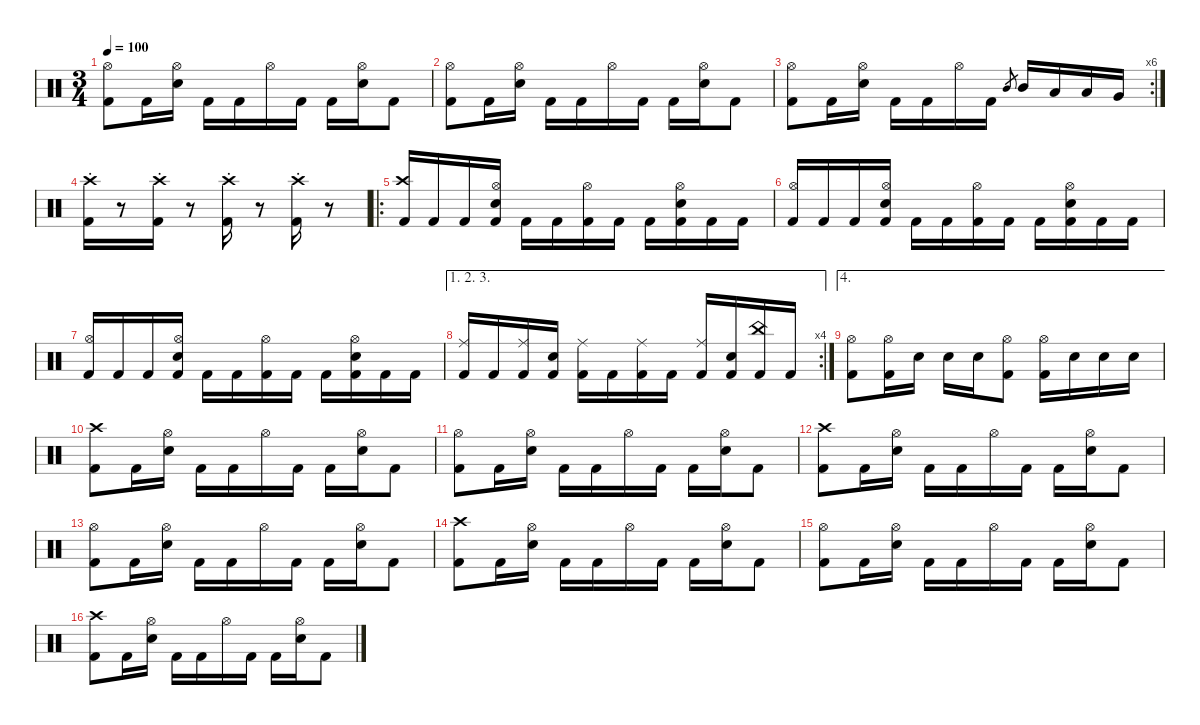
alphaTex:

\defaultSystemsLayout 4
\hideDynamics
\bracketExtendMode nobrackets
\singleTrackTrackNamePolicy hidden
\multiTrackTrackNamePolicy hidden
\firstSystemTrackNameMode fullname
\firstSystemTrackNameOrientation horizontal
\otherSystemsTrackNameOrientation horizontal
\track ("Drums" "drm.") {instrument percussion}
\staff {score}
\articulation defaults
\ts (3 4)
\tempo 100
\clef neutral
\ks c
("Hi-Hat (open)" "Kick (hit) 2").8{dy f beam Down} "Kick (hit) 2".16{dy ff beam Down} ("Hi-Hat (open)" "Snare (hit) 2").16{dy f beam Down} "Kick (hit) 2".16{dy ff beam Down} "Kick (hit) 2".16{beam Down} "Hi-Hat (open)".16{dy f beam Down} "Kick (hit) 2".16{dy ff beam Down} "Kick (hit) 2".16{beam Down} ("Hi-Hat (open)" "Snare (hit) 2").16{dy f beam Down} "Kick (hit) 2".8{dy ff beam Down} |
("Hi-Hat (open)" "Kick (hit) 2").8{dy f beam Down} "Kick (hit) 2".16{dy ff beam Down} ("Hi-Hat (open)" "Snare (hit) 2").16{dy f beam Down} "Kick (hit) 2".16{dy ff beam Down} "Kick (hit) 2".16{beam Down} "Hi-Hat (open)".16{dy f beam Down} "Kick (hit) 2".16{dy ff beam Down} "Kick (hit) 2".16{beam Down} ("Hi-Hat (open)" "Snare (hit) 2").16{dy f beam Down} "Kick (hit) 2".8{dy ff beam Down} |
\rc 6
("Hi-Hat (open)" "Kick (hit) 2").8{dy f beam Down} "Kick (hit) 2".16{dy ff beam Down} ("Hi-Hat (open)" "Snare (hit) 2").16{dy f beam Down} "Kick (hit) 2".16{dy ff beam Down} "Kick (hit) 2".16{beam Down} "Hi-Hat (open)".16{dy f beam Down} "Kick (hit) 2".16{dy ff beam Down} "Mid Tom (hit)".8{gr dy mf beam Up} "Mid Tom (hit)".16{dy ff beam Up} "Low Tom (hit)".16{beam Up} "Low Tom (hit)".16{dy f beam Up} "Very Low Tom (hit)".16{dy ff beam Up} |
("Crash high (hit)"{st} "Kick (hit) 2").16{dy f beam Down} r.8{beam Down} ("Crash high (hit)"{st} "Kick (hit) 2").16{beam Down} r.8{beam Down} ("Crash high (hit)"{st} "Kick (hit) 2").16{beam Down} r.8{beam Down} ("Crash high (hit)"{st} "Kick (hit) 2").16{beam Down} r.8{beam Down} |
\ro
("Crash high (hit)" "Kick (hit) 2").16{beam Up} "Kick (hit) 2".16{beam Up} "Kick (hit) 2".16{beam Up} ("Hi-Hat (open)" "Snare (hit) 2" "Kick (hit) 2").16{beam Up} "Kick (hit) 2".16{beam Down} "Kick (hit) 2".16{beam Down} ("Hi-Hat (open)" "Kick (hit) 2").16{beam Down} "Kick (hit) 2".16{beam Down} "Kick (hit) 2".16{beam Down} ("Hi-Hat (open)" "Snare (hit) 2" "Kick (hit) 2").16{beam Down} "Kick (hit) 2".16{beam Down} "Kick (hit) 2".16{beam Down} |
("Hi-Hat (open)" "Kick (hit) 2").16{beam Up} "Kick (hit) 2".16{beam Up} "Kick (hit) 2".16{beam Up} ("Hi-Hat (open)" "Snare (hit) 2" "Kick (hit) 2").16{beam Up} "Kick (hit) 2".16{beam Down} "Kick (hit) 2".16{beam Down} ("Hi-Hat (open)" "Kick (hit) 2").16{beam Down} "Kick (hit) 2".16{beam Down} "Kick (hit) 2".16{beam Down} ("Hi-Hat (open)" "Snare (hit) 2" "Kick (hit) 2").16{beam Down} "Kick (hit) 2".16{beam Down} "Kick (hit) 2".16{beam Down} |
("Hi-Hat (open)" "Kick (hit) 2").16{beam Up} "Kick (hit) 2".16{beam Up} "Kick (hit) 2".16{beam Up} ("Hi-Hat (open)" "Snare (hit) 2" "Kick (hit) 2").16{beam Up} "Kick (hit) 2".16{beam Down} "Kick (hit) 2".16{beam Down} ("Hi-Hat (open)" "Kick (hit) 2").16{beam Down} "Kick (hit) 2".16{beam Down} "Kick (hit) 2".16{beam Down} ("Hi-Hat (open)" "Snare (hit) 2" "Kick (hit) 2").16{beam Down} "Kick (hit) 2".16{beam Down} "Kick (hit) 2".16{beam Down} |
\ae (1 2 3)
\rc 4
("Ride (middle)" "Kick (hit) 2").16{beam Up} "Kick (hit) 2".16{beam Up} ("Ride (middle)" "Kick (hit) 2").16{beam Up} ("Snare (hit) 2" "Kick (hit) 2").16{beam Up} ("Ride (middle)" "Kick (hit) 2").16{beam Down} "Kick (hit) 2".16{beam Down} ("Ride (middle)" "Kick (hit) 2").16{beam Down} "Kick (hit) 2".16{beam Down} ("Ride (middle)" "Kick (hit) 2").16{beam Up} ("Snare (hit) 2" "Kick (hit) 2").16{beam Up} ("China (hit)" "Kick (hit) 2").16{beam Up} "Kick (hit) 2".16{beam Up} |
\ae 4
("Hi-Hat (open)" "Kick (hit) 2").8{beam Down} ("Hi-Hat (open)" "Kick (hit) 2").16{beam Down} "Snare (hit) 2".16{beam Down} "Snare (hit) 2".16{beam Down} "Snare (hit) 2".16{beam Down} ("Hi-Hat (open)" "Kick (hit) 2").8{beam Down} ("Hi-Hat (open)" "Kick (hit) 2").16{beam Down} "Snare (hit) 2".16{beam Down} "Snare (hit) 2".16{beam Down} "Snare (hit) 2".16{beam Down} |
("Crash high (hit)" "Kick (hit) 2").8{beam Down} "Kick (hit) 2".16{dy ff beam Down} ("Hi-Hat (open)" "Snare (hit) 2").16{dy f beam Down} "Kick (hit) 2".16{dy ff beam Down} "Kick (hit) 2".16{beam Down} "Hi-Hat (open)".16{dy f beam Down} "Kick (hit) 2".16{dy ff beam Down} "Kick (hit) 2".16{beam Down} ("Hi-Hat (open)" "Snare (hit) 2").16{dy f beam Down} "Kick (hit) 2".8{dy ff beam Down} |
("Hi-Hat (open)" "Kick (hit) 2").8{dy f beam Down} "Kick (hit) 2".16{dy ff beam Down} ("Hi-Hat (open)" "Snare (hit) 2").16{dy f beam Down} "Kick (hit) 2".16{dy ff beam Down} "Kick (hit) 2".16{beam Down} "Hi-Hat (open)".16{dy f beam Down} "Kick (hit) 2".16{dy ff beam Down} "Kick (hit) 2".16{beam Down} ("Hi-Hat (open)" "Snare (hit) 2").16{dy f beam Down} "Kick (hit) 2".8{dy ff beam Down} |
("Crash high (hit)" "Kick (hit) 2").8{dy f beam Down} "Kick (hit) 2".16{dy ff beam Down} ("Hi-Hat (open)" "Snare (hit) 2").16{dy f beam Down} "Kick (hit) 2".16{dy ff beam Down} "Kick (hit) 2".16{beam Down} "Hi-Hat (open)".16{dy f beam Down} "Kick (hit) 2".16{dy ff beam Down} "Kick (hit) 2".16{beam Down} ("Hi-Hat (open)" "Snare (hit) 2").16{dy f beam Down} "Kick (hit) 2".8{dy ff beam Down} |
("Hi-Hat (open)" "Kick (hit) 2").8{dy f beam Down} "Kick (hit) 2".16{dy ff beam Down} ("Hi-Hat (open)" "Snare (hit) 2").16{dy f beam Down} "Kick (hit) 2".16{dy ff beam Down} "Kick (hit) 2".16{beam Down} "Hi-Hat (open)".16{dy f beam Down} "Kick (hit) 2".16{dy ff beam Down} "Kick (hit) 2".16{beam Down} ("Hi-Hat (open)" "Snare (hit) 2").16{dy f beam Down} "Kick (hit) 2".8{dy ff beam Down} |
("Crash high (hit)" "Kick (hit) 2").8{dy f beam Down} "Kick (hit) 2".16{dy ff beam Down} ("Hi-Hat (open)" "Snare (hit) 2").16{dy f beam Down} "Kick (hit) 2".16{dy ff beam Down} "Kick (hit) 2".16{beam Down} "Hi-Hat (open)".16{dy f beam Down} "Kick (hit) 2".16{dy ff beam Down} "Kick (hit) 2".16{beam Down} ("Hi-Hat (open)" "Snare (hit) 2").16{dy f beam Down} "Kick (hit) 2".8{dy ff beam Down} |
("Hi-Hat (open)" "Kick (hit) 2").8{dy f beam Down} "Kick (hit) 2".16{dy ff beam Down} ("Hi-Hat (open)" "Snare (hit) 2").16{dy f beam Down} "Kick (hit) 2".16{dy ff beam Down} "Kick (hit) 2".16{beam Down} "Hi-Hat (open)".16{dy f beam Down} "Kick (hit) 2".16{dy ff beam Down} "Kick (hit) 2".16{beam Down} ("Hi-Hat (open)" "Snare (hit) 2").16{dy f beam Down} "Kick (hit) 2".8{dy ff beam Down} |
("Crash high (hit)" "Kick (hit) 2").8{dy f beam Down} "Kick (hit) 2".16{dy ff beam Down} ("Hi-Hat (open)" "Snare (hit) 2").16{dy f beam Down} "Kick (hit) 2".16{dy ff beam Down} "Kick (hit) 2".16{beam Down} "Hi-Hat (open)".16{dy f beam Down} "Kick (hit) 2".16{dy ff beam Down} "Kick (hit) 2".16{beam Down} ("Hi-Hat (open)" "Snare (hit) 2").16{dy f beam Down} "Kick (hit) 2".8{dy ff beam Down}
